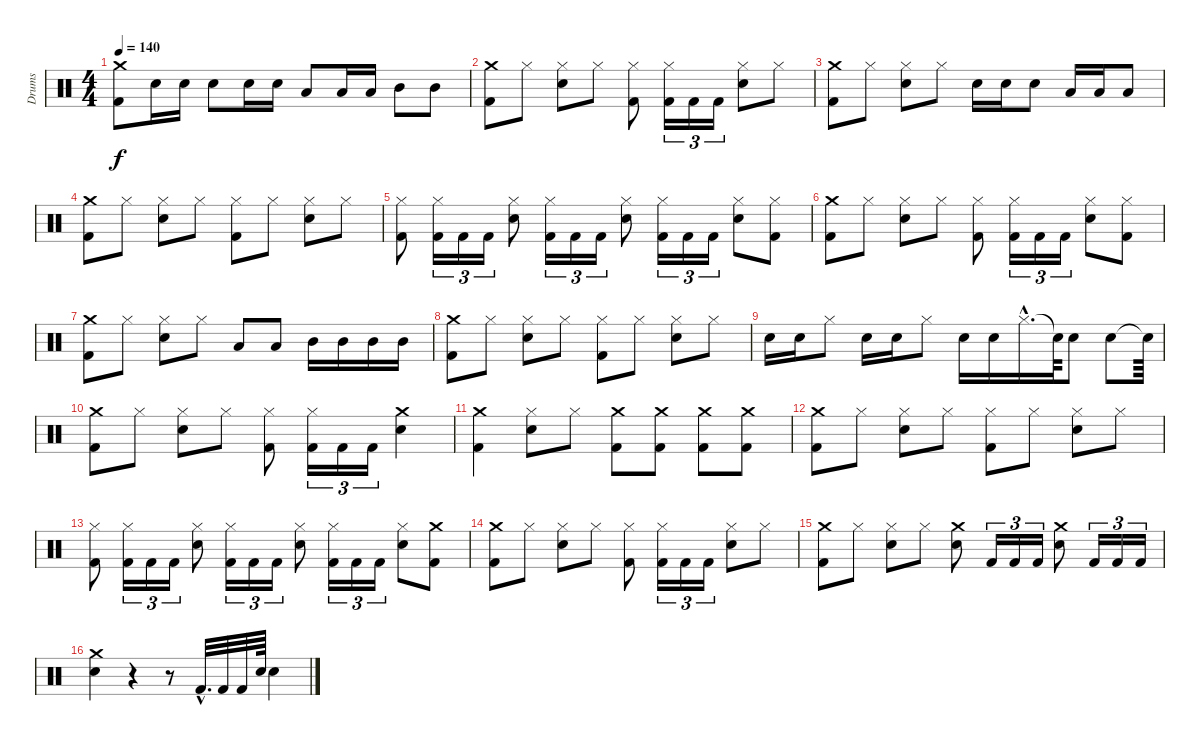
\track ("Drums" "Drums") {instrument percussion}
\staff {score}
\articulation defaults
\ts (4 4)
\tempo 140
\clef neutral
\ks c
("Crash medium (hit)" "Kick (hit) 2").8{dy f} "Snare (hit) 2".16 "Snare (hit) 2".16 "Snare (hit) 2".8 "Snare (hit) 2".16 "Snare (hit) 2".16 "Low Tom (hit)".8 "Low Tom (hit)".16 "Low Tom (hit)".16 "Mid Tom (hit)".8 "Mid Tom (hit)".8 |
("Crash medium (hit)" "Kick (hit) 2").8 "Hi-Hat (closed)".8 ("Snare (hit) 2" "Hi-Hat (closed)").8 "Hi-Hat (closed)".8 ("Kick (hit) 2" "Hi-Hat (closed)").8 ("Kick (hit) 2" "Hi-Hat (closed)").16{tu (3 2)} "Kick (hit) 2".16{tu (3 2)} "Kick (hit) 2".16{tu (3 2)} ("Snare (hit) 2" "Hi-Hat (closed)").8 "Hi-Hat (closed)".8 |
("Kick (hit) 2" "Crash medium (hit)").8 "Hi-Hat (closed)".8 ("Snare (hit) 2" "Hi-Hat (closed)").8 "Hi-Hat (closed)".8 "Snare (hit) 2".16 "Snare (hit) 2".16 "Snare (hit) 2".8 "Low Tom (hit)".16 "Low Tom (hit)".16 "Low Tom (hit)".8 |
("Crash medium (hit)" "Kick (hit) 2").8 "Hi-Hat (closed)".8 ("Snare (hit) 2" "Hi-Hat (closed)").8 "Hi-Hat (closed)".8 ("Hi-Hat (closed)" "Kick (hit) 2").8 "Hi-Hat (closed)".8 ("Snare (hit) 2" "Hi-Hat (closed)").8 "Hi-Hat (closed)".8 |
("Kick (hit) 2" "Hi-Hat (closed)").8 ("Kick (hit) 2" "Hi-Hat (closed)").16{tu (3 2)} "Kick (hit) 2".16{tu (3 2)} "Kick (hit) 2".16{tu (3 2)} ("Snare (hit) 2" "Hi-Hat (closed)").8 ("Kick (hit) 2" "Hi-Hat (closed)").16{tu (3 2)} "Kick (hit) 2".16{tu (3 2)} "Kick (hit) 2".16{tu (3 2)} ("Snare (hit) 2" "Hi-Hat (closed)").8 ("Kick (hit) 2" "Hi-Hat (closed)").16{tu (3 2)} "Kick (hit) 2".16{tu (3 2)} "Kick (hit) 2".16{tu (3 2)} ("Snare (hit) 2" "Hi-Hat (closed)").8 ("Kick (hit) 2" "Hi-Hat (closed)").8 |
("Crash medium (hit)" "Kick (hit) 2").8 "Hi-Hat (closed)".8 ("Snare (hit) 2" "Hi-Hat (closed)").8 "Hi-Hat (closed)".8 ("Hi-Hat (closed)" "Kick (hit) 2").8 ("Hi-Hat (closed)" "Kick (hit) 2").16{tu (3 2)} "Kick (hit) 2".16{tu (3 2)} "Kick (hit) 2".16{tu (3 2)} ("Snare (hit) 2" "Hi-Hat (closed)").8 ("Hi-Hat (closed)" "Kick (hit) 2").8 |
("Kick (hit) 2" "Crash medium (hit)").8 "Hi-Hat (closed)".8 ("Snare (hit) 2" "Hi-Hat (closed)").8 "Hi-Hat (closed)".8 "Low Tom (hit)".8 "Low Tom (hit)".8 "Mid Tom (hit)".16 "Mid Tom (hit)".16 "Mid Tom (hit)".16 "Mid Tom (hit)".16 |
("Crash medium (hit)" "Kick (hit) 2").8 "Hi-Hat (closed)".8 ("Snare (hit) 2" "Hi-Hat (closed)").8 "Hi-Hat (closed)".8 ("Hi-Hat (closed)" "Kick (hit) 2").8 "Hi-Hat (closed)".8 ("Snare (hit) 2" "Hi-Hat (closed)").8 "Hi-Hat (closed)".8 |
"Snare (hit) 2".16 "Snare (hit) 2".16 "Hi-Hat (closed)".8 "Snare (hit) 2".16 "Snare (hit) 2".16 "Hi-Hat (closed)".8 "Snare (hit) 2".16 "Snare (hit) 2".16 "Hi-Hat (closed)"{hac}.16{d} "Snare (hit)"{t}.64 "Snare (hit) 2".8 "Snare (hit) 2".8 "Snare (hit)"{t}.64 |
("Crash medium (hit)" "Kick (hit) 2").8 "Hi-Hat (closed)".8 ("Snare (hit) 2" "Hi-Hat (closed)").8 "Hi-Hat (closed)".8 ("Hi-Hat (closed)" "Kick (hit) 2").8 ("Hi-Hat (closed)" "Kick (hit) 2").16{tu (3 2)} "Kick (hit) 2".16{tu (3 2)} "Kick (hit) 2".16{tu (3 2)} ("Snare (hit) 2" "Crash medium (hit)").4 |
("Kick (hit) 2" "Crash medium (hit)").4 ("Snare (hit) 2" "Hi-Hat (closed)").8 "Hi-Hat (closed)".8 ("Kick (hit) 2" "Crash medium (hit)").8 ("Kick (hit) 2" "Crash medium (hit)").8 ("Kick (hit) 2" "Crash medium (hit)").8 ("Kick (hit) 2" "Crash medium (hit)").8 |
("Crash medium (hit)" "Kick (hit) 2").8 "Hi-Hat (closed)".8 ("Snare (hit) 2" "Hi-Hat (closed)").8 "Hi-Hat (closed)".8 ("Hi-Hat (closed)" "Kick (hit) 2").8 "Hi-Hat (closed)".8 ("Snare (hit) 2" "Hi-Hat (closed)").8 "Hi-Hat (closed)".8 |
("Kick (hit) 2" "Hi-Hat (closed)").8 ("Kick (hit) 2" "Hi-Hat (closed)").16{tu (3 2)} "Kick (hit) 2".16{tu (3 2)} "Kick (hit) 2".16{tu (3 2)} ("Snare (hit) 2" "Hi-Hat (closed)").8 ("Kick (hit) 2" "Hi-Hat (closed)").16{tu (3 2)} "Kick (hit) 2".16{tu (3 2)} "Kick (hit) 2".16{tu (3 2)} ("Snare (hit) 2" "Hi-Hat (closed)").8 ("Kick (hit) 2" "Hi-Hat (closed)").16{tu (3 2)} "Kick (hit) 2".16{tu (3 2)} "Kick (hit) 2".16{tu (3 2)} ("Snare (hit) 2" "Hi-Hat (closed)").8 ("Crash medium (hit)" "Kick (hit) 2").8 |
("Kick (hit) 2" "Crash medium (hit)").8 "Hi-Hat (closed)".8 ("Snare (hit) 2" "Hi-Hat (closed)").8 "Hi-Hat (closed)".8 ("Kick (hit) 2" "Hi-Hat (closed)").8 ("Kick (hit) 2" "Hi-Hat (closed)").16{tu (3 2)} "Kick (hit) 2".16{tu (3 2)} "Kick (hit) 2".16{tu (3 2)} ("Snare (hit) 2" "Hi-Hat (closed)").8 "Hi-Hat (closed)".8 |
("Crash medium (hit)" "Kick (hit) 2").8 "Hi-Hat (closed)".8 ("Snare (hit) 2" "Hi-Hat (closed)").8 "Hi-Hat (closed)".8 ("Snare (hit) 2" "Crash medium (hit)").8 "Kick (hit) 2".16{tu (3 2)} "Kick (hit) 2".16{tu (3 2)} "Kick (hit) 2".16{tu (3 2)} ("Snare (hit) 2" "Crash medium (hit)").8 "Kick (hit) 2".16{tu (3 2)} "Kick (hit) 2".16{tu (3 2)} "Kick (hit) 2".16{tu (3 2)} |
("Snare (hit) 2" "Crash medium (hit)").4 r.4 r.8 "Kick (hit) 2"{hac}.32{d} "Kick (hit) 2".32 "Kick (hit) 2".32 "Snare (hit) 2".64 "Snare (hit) 2".4
